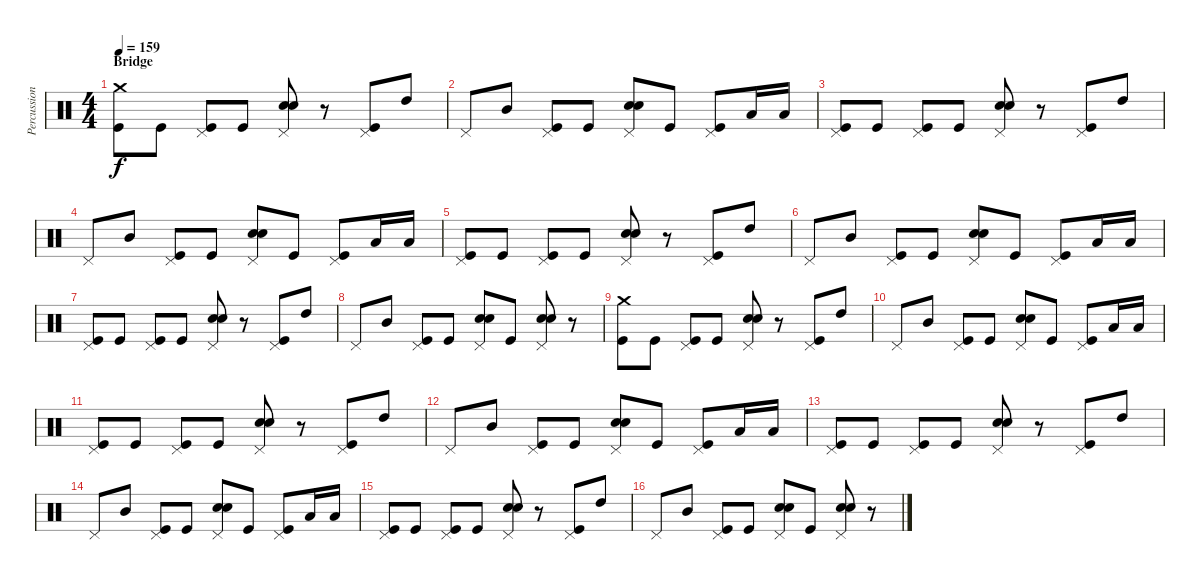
\track ("Percussion" "Percussion") {instrument percussion}
\staff {score}
\articulation defaults
\ts (4 4)
\section ("" "Bridge")
\tempo 159
\clef neutral
\ks c
("Crash medium (hit)" "Kick (hit)").8{dy f} "Kick (hit)".8 ("Pedal Hi-Hat (hit)" "Kick (hit)").8 "Kick (hit)".8 ("Pedal Hi-Hat (hit)" "Snare (hit) 2" "Snare (hit) 2").8 r.8 ("Pedal Hi-Hat (hit)" "Kick (hit)").8 "High Tom (hit)".8 |
"Pedal Hi-Hat (hit)".8 "Mid Tom (hit)".8 ("Pedal Hi-Hat (hit)" "Kick (hit)").8 "Kick (hit)".8 ("Pedal Hi-Hat (hit)" "Snare (hit) 2" "Snare (hit) 2").8 "Kick (hit)".8 ("Pedal Hi-Hat (hit)" "Kick (hit)").8 "Low Tom (hit)".16 "Low Tom (hit)".16 |
("Pedal Hi-Hat (hit)" "Kick (hit)").8 "Kick (hit)".8 ("Pedal Hi-Hat (hit)" "Kick (hit)").8 "Kick (hit)".8 ("Pedal Hi-Hat (hit)" "Snare (hit) 2" "Snare (hit) 2").8 r.8 ("Pedal Hi-Hat (hit)" "Kick (hit)").8 "High Tom (hit)".8 |
"Pedal Hi-Hat (hit)".8 "Mid Tom (hit)".8 ("Pedal Hi-Hat (hit)" "Kick (hit)").8 "Kick (hit)".8 ("Pedal Hi-Hat (hit)" "Snare (hit) 2" "Snare (hit) 2").8 "Kick (hit)".8 ("Pedal Hi-Hat (hit)" "Kick (hit)").8 "Low Tom (hit)".16 "Low Tom (hit)".16 |
("Pedal Hi-Hat (hit)" "Kick (hit)").8 "Kick (hit)".8 ("Pedal Hi-Hat (hit)" "Kick (hit)").8 "Kick (hit)".8 ("Pedal Hi-Hat (hit)" "Snare (hit) 2" "Snare (hit) 2").8 r.8 ("Pedal Hi-Hat (hit)" "Kick (hit)").8 "High Tom (hit)".8 |
"Pedal Hi-Hat (hit)".8 "Mid Tom (hit)".8 ("Pedal Hi-Hat (hit)" "Kick (hit)").8 "Kick (hit)".8 ("Pedal Hi-Hat (hit)" "Snare (hit) 2" "Snare (hit) 2").8 "Kick (hit)".8 ("Pedal Hi-Hat (hit)" "Kick (hit)").8 "Low Tom (hit)".16 "Low Tom (hit)".16 |
("Pedal Hi-Hat (hit)" "Kick (hit)").8 "Kick (hit)".8 ("Pedal Hi-Hat (hit)" "Kick (hit)").8 "Kick (hit)".8 ("Pedal Hi-Hat (hit)" "Snare (hit) 2" "Snare (hit) 2").8 r.8 ("Pedal Hi-Hat (hit)" "Kick (hit)").8 "High Tom (hit)".8 |
"Pedal Hi-Hat (hit)".8 "Mid Tom (hit)".8 ("Pedal Hi-Hat (hit)" "Kick (hit)").8 "Kick (hit)".8 ("Pedal Hi-Hat (hit)" "Snare (hit) 2" "Snare (hit) 2").8 "Kick (hit)".8 ("Pedal Hi-Hat (hit)" "Snare (hit) 2" "Snare (hit) 2").8 r.8 |
("Crash medium (hit)" "Kick (hit)").8 "Kick (hit)".8 ("Pedal Hi-Hat (hit)" "Kick (hit)").8 "Kick (hit)".8 ("Pedal Hi-Hat (hit)" "Snare (hit) 2" "Snare (hit) 2").8 r.8 ("Pedal Hi-Hat (hit)" "Kick (hit)").8 "High Tom (hit)".8 |
"Pedal Hi-Hat (hit)".8 "Mid Tom (hit)".8 ("Pedal Hi-Hat (hit)" "Kick (hit)").8 "Kick (hit)".8 ("Pedal Hi-Hat (hit)" "Snare (hit) 2" "Snare (hit) 2").8 "Kick (hit)".8 ("Pedal Hi-Hat (hit)" "Kick (hit)").8 "Low Tom (hit)".16 "Low Tom (hit)".16 |
("Pedal Hi-Hat (hit)" "Kick (hit)").8 "Kick (hit)".8 ("Pedal Hi-Hat (hit)" "Kick (hit)").8 "Kick (hit)".8 ("Pedal Hi-Hat (hit)" "Snare (hit) 2" "Snare (hit) 2").8 r.8 ("Pedal Hi-Hat (hit)" "Kick (hit)").8 "High Tom (hit)".8 |
"Pedal Hi-Hat (hit)".8 "Mid Tom (hit)".8 ("Pedal Hi-Hat (hit)" "Kick (hit)").8 "Kick (hit)".8 ("Pedal Hi-Hat (hit)" "Snare (hit) 2" "Snare (hit) 2").8 "Kick (hit)".8 ("Pedal Hi-Hat (hit)" "Kick (hit)").8 "Low Tom (hit)".16 "Low Tom (hit)".16 |
("Pedal Hi-Hat (hit)" "Kick (hit)").8 "Kick (hit)".8 ("Pedal Hi-Hat (hit)" "Kick (hit)").8 "Kick (hit)".8 ("Pedal Hi-Hat (hit)" "Snare (hit) 2" "Snare (hit) 2").8 r.8 ("Pedal Hi-Hat (hit)" "Kick (hit)").8 "High Tom (hit)".8 |
"Pedal Hi-Hat (hit)".8 "Mid Tom (hit)".8 ("Pedal Hi-Hat (hit)" "Kick (hit)").8 "Kick (hit)".8 ("Pedal Hi-Hat (hit)" "Snare (hit) 2" "Snare (hit) 2").8 "Kick (hit)".8 ("Pedal Hi-Hat (hit)" "Kick (hit)").8 "Low Tom (hit)".16 "Low Tom (hit)".16 |
("Pedal Hi-Hat (hit)" "Kick (hit)").8 "Kick (hit)".8 ("Pedal Hi-Hat (hit)" "Kick (hit)").8 "Kick (hit)".8 ("Pedal Hi-Hat (hit)" "Snare (hit) 2" "Snare (hit) 2").8 r.8 ("Pedal Hi-Hat (hit)" "Kick (hit)").8 "High Tom (hit)".8 |
"Pedal Hi-Hat (hit)".8 "Mid Tom (hit)".8 ("Pedal Hi-Hat (hit)" "Kick (hit)").8 "Kick (hit)".8 ("Pedal Hi-Hat (hit)" "Snare (hit) 2" "Snare (hit) 2").8 "Kick (hit)".8 ("Pedal Hi-Hat (hit)" "Snare (hit) 2" "Snare (hit) 2").8 r.8
